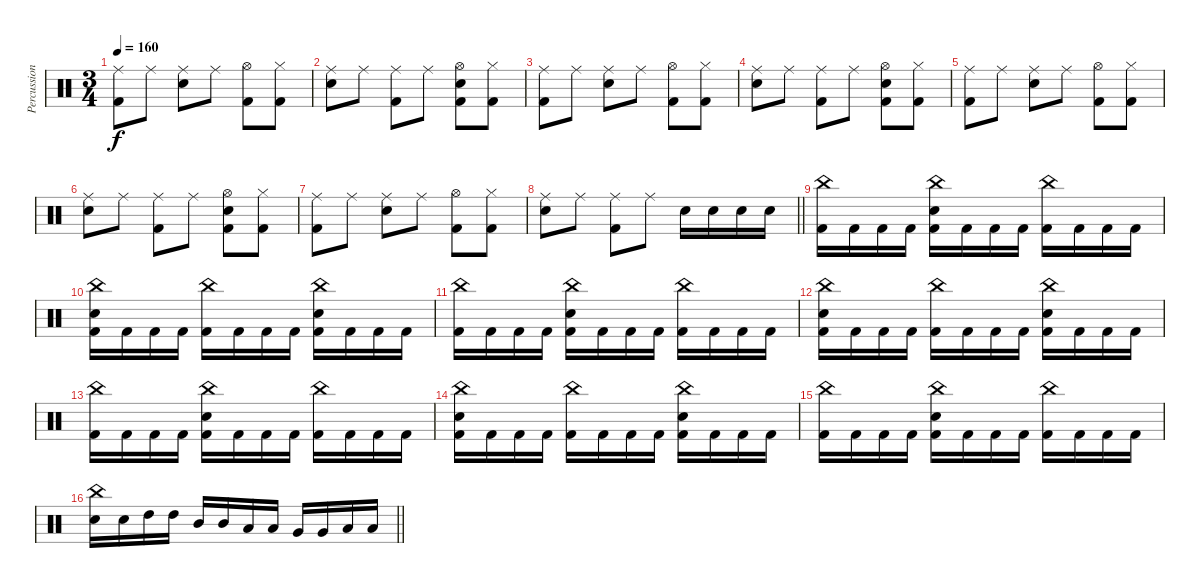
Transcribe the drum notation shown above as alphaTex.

\track ("Percussions" "Percussion") {instrument percussion}
\staff {score}
\articulation defaults
\ts (3 4)
\tempo 160
\clef neutral
\ks c
("Ride (middle)" "Kick (hit) 2").8{dy f} "Ride (middle)".8 ("Ride (middle)" "Electric Snare (hit)").8 "Ride (middle)".8 ("Hi-Hat (open)" "Kick (hit) 2").8 ("Hi-Hat (closed)" "Kick (hit) 2").8 |
("Ride (middle)" "Electric Snare (hit)").8 "Ride (middle)".8 ("Ride (middle)" "Kick (hit) 2").8 "Ride (middle)".8 ("Hi-Hat (open)" "Electric Snare (hit)" "Kick (hit) 2").8 ("Hi-Hat (closed)" "Kick (hit) 2").8 |
("Ride (middle)" "Kick (hit) 2").8 "Ride (middle)".8 ("Ride (middle)" "Electric Snare (hit)").8 "Ride (middle)".8 ("Hi-Hat (open)" "Kick (hit) 2").8 ("Hi-Hat (closed)" "Kick (hit) 2").8 |
("Ride (middle)" "Electric Snare (hit)").8 "Ride (middle)".8 ("Ride (middle)" "Kick (hit) 2").8 "Ride (middle)".8 ("Hi-Hat (open)" "Electric Snare (hit)" "Kick (hit) 2").8 ("Hi-Hat (closed)" "Kick (hit) 2").8 |
("Ride (middle)" "Kick (hit) 2").8 "Ride (middle)".8 ("Ride (middle)" "Electric Snare (hit)").8 "Ride (middle)".8 ("Hi-Hat (open)" "Kick (hit) 2").8 ("Hi-Hat (closed)" "Kick (hit) 2").8 |
("Ride (middle)" "Electric Snare (hit)").8 "Ride (middle)".8 ("Ride (middle)" "Kick (hit) 2").8 "Ride (middle)".8 ("Hi-Hat (open)" "Electric Snare (hit)" "Kick (hit) 2").8 ("Hi-Hat (closed)" "Kick (hit) 2").8 |
("Ride (middle)" "Kick (hit) 2").8 "Ride (middle)".8 ("Ride (middle)" "Electric Snare (hit)").8 "Ride (middle)".8 ("Hi-Hat (open)" "Kick (hit) 2").8 ("Hi-Hat (closed)" "Kick (hit) 2").8 |
\barLineRight lightlight
("Ride (middle)" "Electric Snare (hit)").8 "Ride (middle)".8 ("Ride (middle)" "Kick (hit) 2").8 "Ride (middle)".8 "Electric Snare (hit)".16 "Electric Snare (hit)".16 "Electric Snare (hit)".16 "Electric Snare (hit)".16 |
("China (hit)" "Kick (hit) 2").16 "Kick (hit) 2".16 "Kick (hit) 2".16 "Kick (hit) 2".16 ("China (hit)" "Electric Snare (hit)" "Kick (hit) 2").16 "Kick (hit) 2".16 "Kick (hit) 2".16 "Kick (hit) 2".16 ("China (hit)" "Kick (hit) 2").16 "Kick (hit) 2".16 "Kick (hit) 2".16 "Kick (hit) 2".16 |
("China (hit)" "Electric Snare (hit)" "Kick (hit) 2").16 "Kick (hit) 2".16 "Kick (hit) 2".16 "Kick (hit) 2".16 ("China (hit)" "Kick (hit) 2").16 "Kick (hit) 2".16 "Kick (hit) 2".16 "Kick (hit) 2".16 ("China (hit)" "Electric Snare (hit)" "Kick (hit) 2").16 "Kick (hit) 2".16 "Kick (hit) 2".16 "Kick (hit) 2".16 |
("China (hit)" "Kick (hit) 2").16 "Kick (hit) 2".16 "Kick (hit) 2".16 "Kick (hit) 2".16 ("China (hit)" "Electric Snare (hit)" "Kick (hit) 2").16 "Kick (hit) 2".16 "Kick (hit) 2".16 "Kick (hit) 2".16 ("China (hit)" "Kick (hit) 2").16 "Kick (hit) 2".16 "Kick (hit) 2".16 "Kick (hit) 2".16 |
("China (hit)" "Electric Snare (hit)" "Kick (hit) 2").16 "Kick (hit) 2".16 "Kick (hit) 2".16 "Kick (hit) 2".16 ("China (hit)" "Kick (hit) 2").16 "Kick (hit) 2".16 "Kick (hit) 2".16 "Kick (hit) 2".16 ("China (hit)" "Electric Snare (hit)" "Kick (hit) 2").16 "Kick (hit) 2".16 "Kick (hit) 2".16 "Kick (hit) 2".16 |
("China (hit)" "Kick (hit) 2").16 "Kick (hit) 2".16 "Kick (hit) 2".16 "Kick (hit) 2".16 ("China (hit)" "Electric Snare (hit)" "Kick (hit) 2").16 "Kick (hit) 2".16 "Kick (hit) 2".16 "Kick (hit) 2".16 ("China (hit)" "Kick (hit) 2").16 "Kick (hit) 2".16 "Kick (hit) 2".16 "Kick (hit) 2".16 |
("China (hit)" "Electric Snare (hit)" "Kick (hit) 2").16 "Kick (hit) 2".16 "Kick (hit) 2".16 "Kick (hit) 2".16 ("China (hit)" "Kick (hit) 2").16 "Kick (hit) 2".16 "Kick (hit) 2".16 "Kick (hit) 2".16 ("China (hit)" "Electric Snare (hit)" "Kick (hit) 2").16 "Kick (hit) 2".16 "Kick (hit) 2".16 "Kick (hit) 2".16 |
("China (hit)" "Kick (hit) 2").16 "Kick (hit) 2".16 "Kick (hit) 2".16 "Kick (hit) 2".16 ("China (hit)" "Electric Snare (hit)" "Kick (hit) 2").16 "Kick (hit) 2".16 "Kick (hit) 2".16 "Kick (hit) 2".16 ("China (hit)" "Kick (hit) 2").16 "Kick (hit) 2".16 "Kick (hit) 2".16 "Kick (hit) 2".16 |
\barLineRight lightlight
("China (hit)" "Electric Snare (hit)").16 "Electric Snare (hit)".16 "High Tom (hit)".16 "High Tom (hit)".16 "Mid Tom (hit)".16 "Mid Tom (hit)".16 "Low Tom (hit)".16 "Low Tom (hit)".16 "Very Low Tom (hit)".16 "Very Low Tom (hit)".16 "Low Floor Tom (hit)".16 "Low Floor Tom (hit)".16
